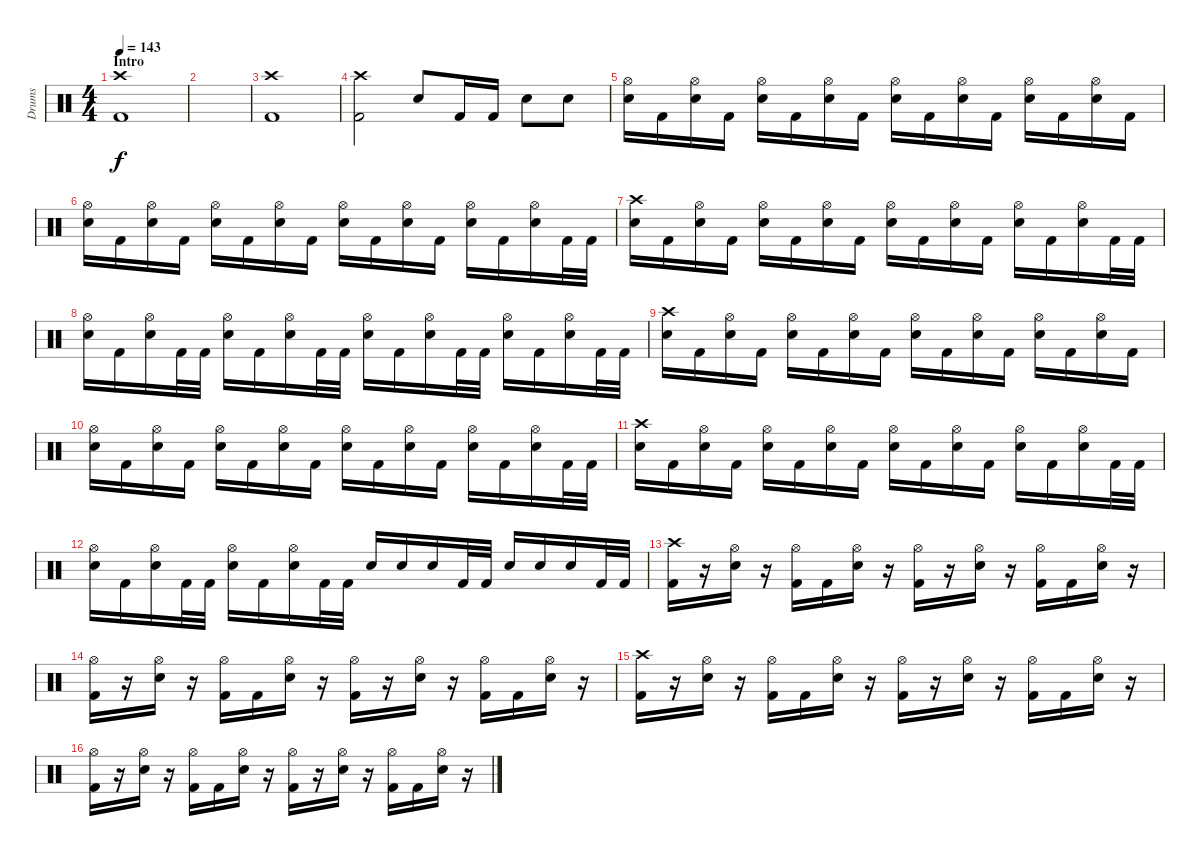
\track ("Drums" "Drums") {instrument percussion}
\staff {score}
\articulation defaults
\ts (4 4)
\section ("" "Intro")
\tempo 143
\clef neutral
\ks c
("Kick (hit) 2" "Crash high (hit)").1{dy f} |
|
("Kick (hit) 2" "Crash high (hit)").1 |
("Kick (hit) 2" "Crash high (hit)").2 "Electric Snare (hit)".8 "Kick (hit) 2".16 "Kick (hit) 2".16 "Electric Snare (hit)".8 "Electric Snare (hit)".8 |
("Electric Snare (hit)" "Hi-Hat (open)").16 "Kick (hit) 2".16 ("Electric Snare (hit)" "Hi-Hat (open)").16 "Kick (hit) 2".16 ("Electric Snare (hit)" "Hi-Hat (open)").16 "Kick (hit) 2".16 ("Electric Snare (hit)" "Hi-Hat (open)").16 "Kick (hit) 2".16 ("Electric Snare (hit)" "Hi-Hat (open)").16 "Kick (hit) 2".16 ("Electric Snare (hit)" "Hi-Hat (open)").16 "Kick (hit) 2".16 ("Electric Snare (hit)" "Hi-Hat (open)").16 "Kick (hit) 2".16 ("Electric Snare (hit)" "Hi-Hat (open)").16 "Kick (hit) 2".16 |
("Electric Snare (hit)" "Hi-Hat (open)").16 "Kick (hit) 2".16 ("Electric Snare (hit)" "Hi-Hat (open)").16 "Kick (hit) 2".16 ("Electric Snare (hit)" "Hi-Hat (open)").16 "Kick (hit) 2".16 ("Electric Snare (hit)" "Hi-Hat (open)").16 "Kick (hit) 2".16 ("Electric Snare (hit)" "Hi-Hat (open)").16 "Kick (hit) 2".16 ("Electric Snare (hit)" "Hi-Hat (open)").16 "Kick (hit) 2".16 ("Electric Snare (hit)" "Hi-Hat (open)").16 "Kick (hit) 2".16 ("Electric Snare (hit)" "Hi-Hat (open)").16 "Kick (hit) 2".32 "Kick (hit) 2".32 |
("Electric Snare (hit)" "Crash high (hit)").16 "Kick (hit) 2".16 ("Electric Snare (hit)" "Hi-Hat (open)").16 "Kick (hit) 2".16 ("Electric Snare (hit)" "Hi-Hat (open)").16 "Kick (hit) 2".16 ("Electric Snare (hit)" "Hi-Hat (open)").16 "Kick (hit) 2".16 ("Electric Snare (hit)" "Hi-Hat (open)").16 "Kick (hit) 2".16 ("Electric Snare (hit)" "Hi-Hat (open)").16 "Kick (hit) 2".16 ("Electric Snare (hit)" "Hi-Hat (open)").16 "Kick (hit) 2".16 ("Electric Snare (hit)" "Hi-Hat (open)").16 "Kick (hit) 2".32 "Kick (hit) 2".32 |
("Electric Snare (hit)" "Hi-Hat (open)").16 "Kick (hit) 2".16 ("Electric Snare (hit)" "Hi-Hat (open)").16 "Kick (hit) 2".32 "Kick (hit) 2".32 ("Electric Snare (hit)" "Hi-Hat (open)").16 "Kick (hit) 2".16 ("Electric Snare (hit)" "Hi-Hat (open)").16 "Kick (hit) 2".32 "Kick (hit) 2".32 ("Electric Snare (hit)" "Hi-Hat (open)").16 "Kick (hit) 2".16 ("Electric Snare (hit)" "Hi-Hat (open)").16 "Kick (hit) 2".32 "Kick (hit) 2".32 ("Electric Snare (hit)" "Hi-Hat (open)").16 "Kick (hit) 2".16 ("Electric Snare (hit)" "Hi-Hat (open)").16 "Kick (hit) 2".32 "Kick (hit) 2".32 |
("Electric Snare (hit)" "Crash high (hit)").16 "Kick (hit) 2".16 ("Electric Snare (hit)" "Hi-Hat (open)").16 "Kick (hit) 2".16 ("Electric Snare (hit)" "Hi-Hat (open)").16 "Kick (hit) 2".16 ("Electric Snare (hit)" "Hi-Hat (open)").16 "Kick (hit) 2".16 ("Electric Snare (hit)" "Hi-Hat (open)").16 "Kick (hit) 2".16 ("Electric Snare (hit)" "Hi-Hat (open)").16 "Kick (hit) 2".16 ("Electric Snare (hit)" "Hi-Hat (open)").16 "Kick (hit) 2".16 ("Electric Snare (hit)" "Hi-Hat (open)").16 "Kick (hit) 2".16 |
("Electric Snare (hit)" "Hi-Hat (open)").16 "Kick (hit) 2".16 ("Electric Snare (hit)" "Hi-Hat (open)").16 "Kick (hit) 2".16 ("Electric Snare (hit)" "Hi-Hat (open)").16 "Kick (hit) 2".16 ("Electric Snare (hit)" "Hi-Hat (open)").16 "Kick (hit) 2".16 ("Electric Snare (hit)" "Hi-Hat (open)").16 "Kick (hit) 2".16 ("Electric Snare (hit)" "Hi-Hat (open)").16 "Kick (hit) 2".16 ("Electric Snare (hit)" "Hi-Hat (open)").16 "Kick (hit) 2".16 ("Electric Snare (hit)" "Hi-Hat (open)").16 "Kick (hit) 2".32 "Kick (hit) 2".32 |
("Electric Snare (hit)" "Crash high (hit)").16 "Kick (hit) 2".16 ("Electric Snare (hit)" "Hi-Hat (open)").16 "Kick (hit) 2".16 ("Electric Snare (hit)" "Hi-Hat (open)").16 "Kick (hit) 2".16 ("Electric Snare (hit)" "Hi-Hat (open)").16 "Kick (hit) 2".16 ("Electric Snare (hit)" "Hi-Hat (open)").16 "Kick (hit) 2".16 ("Electric Snare (hit)" "Hi-Hat (open)").16 "Kick (hit) 2".16 ("Electric Snare (hit)" "Hi-Hat (open)").16 "Kick (hit) 2".16 ("Electric Snare (hit)" "Hi-Hat (open)").16 "Kick (hit) 2".32 "Kick (hit) 2".32 |
("Electric Snare (hit)" "Hi-Hat (open)").16 "Kick (hit) 2".16 ("Electric Snare (hit)" "Hi-Hat (open)").16 "Kick (hit) 2".32 "Kick (hit) 2".32 ("Electric Snare (hit)" "Hi-Hat (open)").16 "Kick (hit) 2".16 ("Electric Snare (hit)" "Hi-Hat (open)").16 "Kick (hit) 2".32 "Kick (hit) 2".32 "Electric Snare (hit)".16 "Electric Snare (hit)".16 "Electric Snare (hit)".16 "Kick (hit) 2".32 "Kick (hit) 2".32 "Electric Snare (hit)".16 "Electric Snare (hit)".16 "Electric Snare (hit)".16 "Kick (hit) 2".32 "Kick (hit) 2".32 |
("Kick (hit) 2" "Crash high (hit)").16 r.16 ("Electric Snare (hit)" "Hi-Hat (open)").16 r.16 ("Kick (hit) 2" "Hi-Hat (open)").16 "Kick (hit) 2".16 ("Electric Snare (hit)" "Hi-Hat (open)").16 r.16 ("Kick (hit) 2" "Hi-Hat (open)").16 r.16 ("Electric Snare (hit)" "Hi-Hat (open)").16 r.16 ("Kick (hit) 2" "Hi-Hat (open)").16 "Kick (hit) 2".16 ("Electric Snare (hit)" "Hi-Hat (open)").16 r.16 |
("Kick (hit) 2" "Hi-Hat (open)").16 r.16 ("Electric Snare (hit)" "Hi-Hat (open)").16 r.16 ("Kick (hit) 2" "Hi-Hat (open)").16 "Kick (hit) 2".16 ("Electric Snare (hit)" "Hi-Hat (open)").16 r.16 ("Kick (hit) 2" "Hi-Hat (open)").16 r.16 ("Electric Snare (hit)" "Hi-Hat (open)").16 r.16 ("Kick (hit) 2" "Hi-Hat (open)").16 "Kick (hit) 2".16 ("Electric Snare (hit)" "Hi-Hat (open)").16 r.16 |
("Kick (hit) 2" "Crash high (hit)").16 r.16 ("Electric Snare (hit)" "Hi-Hat (open)").16 r.16 ("Kick (hit) 2" "Hi-Hat (open)").16 "Kick (hit) 2".16 ("Electric Snare (hit)" "Hi-Hat (open)").16 r.16 ("Kick (hit) 2" "Hi-Hat (open)").16 r.16 ("Electric Snare (hit)" "Hi-Hat (open)").16 r.16 ("Kick (hit) 2" "Hi-Hat (open)").16 "Kick (hit) 2".16 ("Electric Snare (hit)" "Hi-Hat (open)").16 r.16 |
("Kick (hit) 2" "Hi-Hat (open)").16 r.16 ("Electric Snare (hit)" "Hi-Hat (open)").16 r.16 ("Kick (hit) 2" "Hi-Hat (open)").16 "Kick (hit) 2".16 ("Electric Snare (hit)" "Hi-Hat (open)").16 r.16 ("Kick (hit) 2" "Hi-Hat (open)").16 r.16 ("Electric Snare (hit)" "Hi-Hat (open)").16 r.16 ("Kick (hit) 2" "Hi-Hat (open)").16 "Kick (hit) 2".16 ("Electric Snare (hit)" "Hi-Hat (open)").16 r.16
